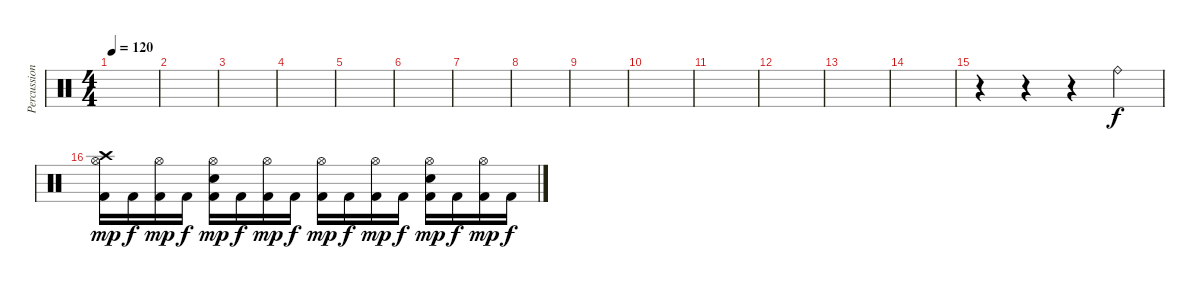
\track ("Percussion" "Percussion") {instrument percussion}
\staff {score}
\articulation defaults
\ts (4 4)
\tempo 120
\clef neutral
\ks c
|
|
|
|
|
|
|
|
|
|
|
|
|
|
r.4 r.4 r.4 "Ride (bell)".4 |
("Hi-Hat (open)" "Crash high (hit)" "Kick (hit) 2").16{dy mp} "Kick (hit) 2".16{dy f} ("Hi-Hat (open)" "Kick (hit) 2").16{dy mp} "Kick (hit) 2".16{dy f} ("Hi-Hat (open)" "Electric Snare (hit)" "Kick (hit) 2").16{dy mp} "Kick (hit) 2".16{dy f} ("Hi-Hat (open)" "Kick (hit) 2").16{dy mp} "Kick (hit) 2".16{dy f} ("Hi-Hat (open)" "Kick (hit) 2").16{dy mp} "Kick (hit) 2".16{dy f} ("Hi-Hat (open)" "Kick (hit) 2").16{dy mp} "Kick (hit) 2".16{dy f} ("Hi-Hat (open)" "Electric Snare (hit)" "Kick (hit) 2").16{dy mp} "Kick (hit) 2".16{dy f} ("Hi-Hat (open)" "Kick (hit) 2").16{dy mp} "Kick (hit) 2".16{dy f}
